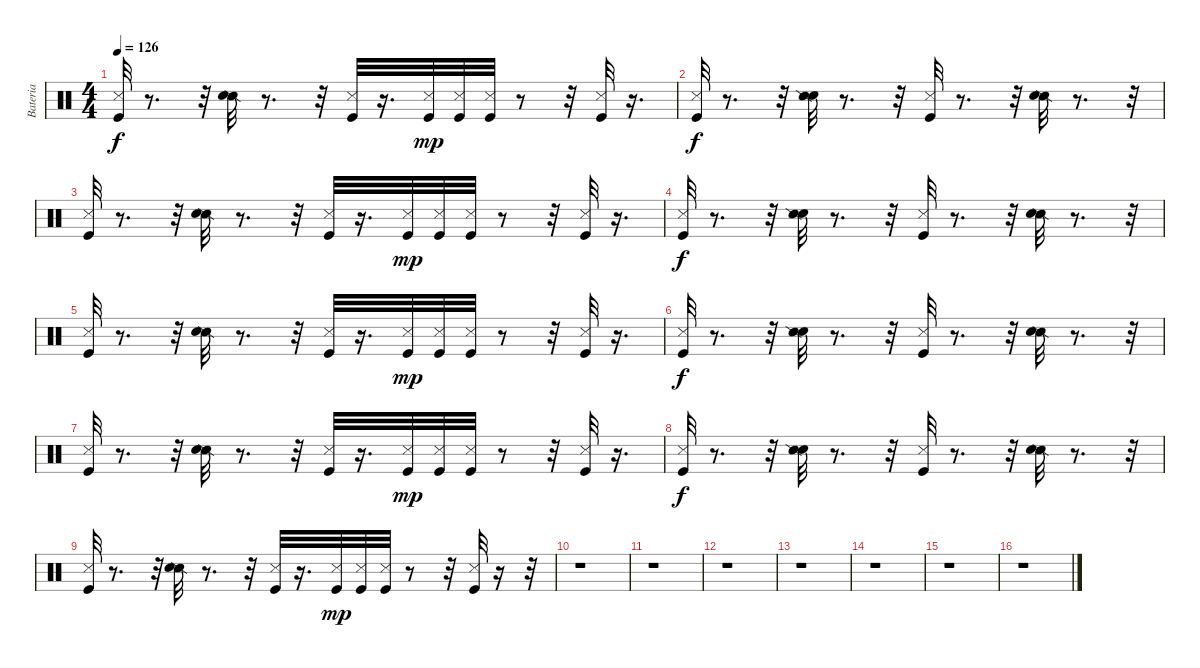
\track ("Bateria" "Bateria") {instrument percussion}
\staff {score}
\articulation defaults
\ts (4 4)
\tempo 126
\clef neutral
\ks c
("Metronome (hit)" "Kick (hit)").32{dy f} r.8{d} r.32 ("Snare (side stick) 2" "Metronome (bell)").32 r.8{d} r.32 ("Metronome (hit)" "Kick (hit)").32 r.16{d} ("Metronome (hit)" "Kick (hit)").32{dy mp} ("Kick (hit)" "Metronome (hit)").32 ("Metronome (hit)" "Kick (hit)").32 r.8 r.32 ("Metronome (hit)" "Kick (hit)").32 r.16{d} |
("Kick (hit)" "Metronome (hit)").32{dy f} r.8{d} r.32 ("Metronome (bell)" "Snare (side stick) 2").32 r.8{d} r.32 ("Metronome (hit)" "Kick (hit)").32 r.8{d} r.32 ("Snare (side stick) 2" "Metronome (bell)").32 r.8{d} r.32 |
("Metronome (hit)" "Kick (hit)").32 r.8{d} r.32 ("Snare (side stick) 2" "Metronome (bell)").32 r.8{d} r.32 ("Metronome (hit)" "Kick (hit)").32 r.16{d} ("Metronome (hit)" "Kick (hit)").32{dy mp} ("Kick (hit)" "Metronome (hit)").32 ("Metronome (hit)" "Kick (hit)").32 r.8 r.32 ("Metronome (hit)" "Kick (hit)").32 r.16{d} |
("Kick (hit)" "Metronome (hit)").32{dy f} r.8{d} r.32 ("Metronome (bell)" "Snare (side stick) 2").32 r.8{d} r.32 ("Metronome (hit)" "Kick (hit)").32 r.8{d} r.32 ("Snare (side stick) 2" "Metronome (bell)").32 r.8{d} r.32 |
("Metronome (hit)" "Kick (hit)").32 r.8{d} r.32 ("Snare (side stick) 2" "Metronome (bell)").32 r.8{d} r.32 ("Metronome (hit)" "Kick (hit)").32 r.16{d} ("Metronome (hit)" "Kick (hit)").32{dy mp} ("Kick (hit)" "Metronome (hit)").32 ("Metronome (hit)" "Kick (hit)").32 r.8 r.32 ("Metronome (hit)" "Kick (hit)").32 r.16{d} |
("Kick (hit)" "Metronome (hit)").32{dy f} r.8{d} r.32 ("Metronome (bell)" "Snare (side stick) 2").32 r.8{d} r.32 ("Metronome (hit)" "Kick (hit)").32 r.8{d} r.32 ("Snare (side stick) 2" "Metronome (bell)").32 r.8{d} r.32 |
("Metronome (hit)" "Kick (hit)").32 r.8{d} r.32 ("Snare (side stick) 2" "Metronome (bell)").32 r.8{d} r.32 ("Metronome (hit)" "Kick (hit)").32 r.16{d} ("Metronome (hit)" "Kick (hit)").32{dy mp} ("Kick (hit)" "Metronome (hit)").32 ("Metronome (hit)" "Kick (hit)").32 r.8 r.32 ("Metronome (hit)" "Kick (hit)").32 r.16{d} |
("Kick (hit)" "Metronome (hit)").32{dy f} r.8{d} r.32 ("Metronome (bell)" "Snare (side stick) 2").32 r.8{d} r.32 ("Metronome (hit)" "Kick (hit)").32 r.8{d} r.32 ("Snare (side stick) 2" "Metronome (bell)").32 r.8{d} r.32 |
("Metronome (hit)" "Kick (hit)").32 r.8{d} r.32 ("Snare (side stick) 2" "Metronome (bell)").32 r.8{d} r.32 ("Metronome (hit)" "Kick (hit)").32 r.16{d} ("Metronome (hit)" "Kick (hit)").32{dy mp} ("Kick (hit)" "Metronome (hit)").32 ("Metronome (hit)" "Kick (hit)").32 r.8 r.32 ("Metronome (hit)" "Kick (hit)").32 r.16 r.32 |
r.1 |
r.1 |
r.1 |
r.1 |
r.1 |
r.1 |
r.1
